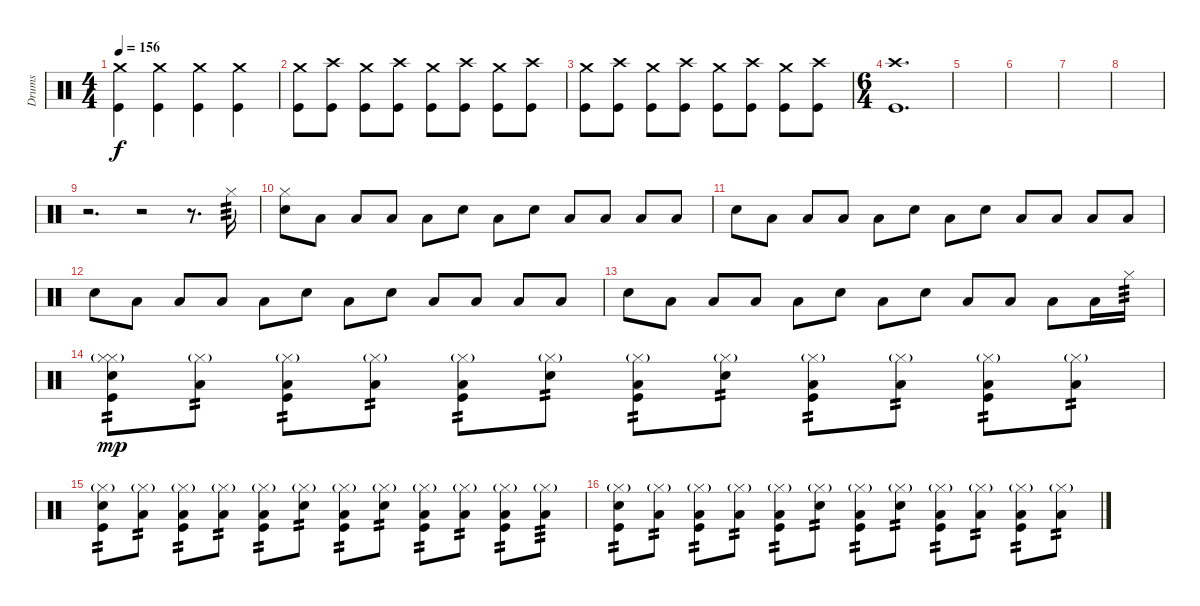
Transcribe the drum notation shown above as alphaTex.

\track ("Drums" "Drums") {instrument percussion}
\staff {score}
\articulation defaults
\ts (4 4)
\tempo 156
\clef neutral
\ks c
("Crash medium (hit)" "Kick (hit)").4{dy f} ("Crash medium (hit)" "Kick (hit)").4 ("Crash medium (hit)" "Kick (hit)").4 ("Crash medium (hit)" "Kick (hit)").4 |
("Crash medium (hit)" "Kick (hit)").8 ("Crash high (hit)" "Kick (hit)").8 ("Crash medium (hit)" "Kick (hit)").8 ("Crash high (hit)" "Kick (hit)").8 ("Crash medium (hit)" "Kick (hit)").8 ("Crash high (hit)" "Kick (hit)").8 ("Crash medium (hit)" "Kick (hit)").8 ("Crash high (hit)" "Kick (hit)").8 |
("Crash medium (hit)" "Kick (hit)").8 ("Crash high (hit)" "Kick (hit)").8 ("Crash medium (hit)" "Kick (hit)").8 ("Crash high (hit)" "Kick (hit)").8 ("Crash medium (hit)" "Kick (hit)").8 ("Crash high (hit)" "Kick (hit)").8 ("Crash medium (hit)" "Kick (hit)").8 ("Crash high (hit)" "Kick (hit)").8 |
\ts (6 4)
("Crash high (hit)" "Kick (hit)").1{d} |
|
|
|
|
r.2{d} r.2 r.8{d} "Hi-Hat (closed)".16{tp 3} |
("Hi-Hat (closed)" "Electric Snare (hit)").8 "Low Tom (hit)".8 "Low Tom (hit)".8 "Low Tom (hit)".8 "Low Tom (hit)".8 "Electric Snare (hit)".8 "Low Tom (hit)".8 "Electric Snare (hit)".8 "Low Tom (hit)".8 "Low Tom (hit)".8 "Low Tom (hit)".8 "Low Tom (hit)".8 |
"Electric Snare (hit)".8 "Low Tom (hit)".8 "Low Tom (hit)".8 "Low Tom (hit)".8 "Low Tom (hit)".8 "Electric Snare (hit)".8 "Low Tom (hit)".8 "Electric Snare (hit)".8 "Low Tom (hit)".8 "Low Tom (hit)".8 "Low Tom (hit)".8 "Low Tom (hit)".8 |
"Electric Snare (hit)".8 "Low Tom (hit)".8 "Low Tom (hit)".8 "Low Tom (hit)".8 "Low Tom (hit)".8 "Electric Snare (hit)".8 "Low Tom (hit)".8 "Electric Snare (hit)".8 "Low Tom (hit)".8 "Low Tom (hit)".8 "Low Tom (hit)".8 "Low Tom (hit)".8 |
"Electric Snare (hit)".8 "Low Tom (hit)".8 "Low Tom (hit)".8 "Low Tom (hit)".8 "Low Tom (hit)".8 "Electric Snare (hit)".8 "Low Tom (hit)".8 "Electric Snare (hit)".8 "Low Tom (hit)".8 "Low Tom (hit)".8 "Low Tom (hit)".8 "Low Tom (hit)".16 "Hi-Hat (closed)".16{tp 3} |
("Hi-Hat (closed)"{g} "Hi-Hat (closed)" "Electric Snare (hit)" "Kick (hit)").8{tp 2 dy mp} ("Hi-Hat (closed)"{g} "Low Tom (hit)").8{tp 2} ("Hi-Hat (closed)"{g} "Low Tom (hit)" "Kick (hit)").8{tp 2} ("Hi-Hat (closed)"{g} "Low Tom (hit)").8{tp 2} ("Hi-Hat (closed)"{g} "Low Tom (hit)" "Kick (hit)").8{tp 2} ("Hi-Hat (closed)"{g} "Electric Snare (hit)").8{tp 2} ("Hi-Hat (closed)"{g} "Low Tom (hit)" "Kick (hit)").8{tp 2} ("Hi-Hat (closed)"{g} "Electric Snare (hit)").8{tp 2} ("Hi-Hat (closed)"{g} "Low Tom (hit)" "Kick (hit)").8{tp 2} ("Hi-Hat (closed)"{g} "Low Tom (hit)").8{tp 2} ("Hi-Hat (closed)"{g} "Low Tom (hit)" "Kick (hit)").8{tp 2} ("Hi-Hat (closed)"{g} "Low Tom (hit)").8{tp 2} |
("Hi-Hat (closed)"{g} "Electric Snare (hit)" "Kick (hit)").8{tp 2} ("Hi-Hat (closed)"{g} "Low Tom (hit)").8{tp 2} ("Hi-Hat (closed)"{g} "Low Tom (hit)" "Kick (hit)").8{tp 2} ("Hi-Hat (closed)"{g} "Low Tom (hit)").8{tp 2} ("Hi-Hat (closed)"{g} "Low Tom (hit)" "Kick (hit)").8{tp 2} ("Hi-Hat (closed)"{g} "Electric Snare (hit)").8{tp 2} ("Hi-Hat (closed)"{g} "Low Tom (hit)" "Kick (hit)").8{tp 2} ("Hi-Hat (closed)"{g} "Electric Snare (hit)").8{tp 2} ("Hi-Hat (closed)"{g} "Low Tom (hit)" "Kick (hit)").8{tp 2} ("Hi-Hat (closed)"{g} "Low Tom (hit)").8{tp 2} ("Hi-Hat (closed)"{g} "Low Tom (hit)" "Kick (hit)").8{tp 2} ("Hi-Hat (closed)"{g} "Low Tom (hit)").8{tp 3} |
("Hi-Hat (closed)"{g} "Electric Snare (hit)" "Kick (hit)").8{tp 2} ("Hi-Hat (closed)"{g} "Low Tom (hit)").8{tp 2} ("Hi-Hat (closed)"{g} "Low Tom (hit)" "Kick (hit)").8{tp 2} ("Hi-Hat (closed)"{g} "Low Tom (hit)").8{tp 2} ("Hi-Hat (closed)"{g} "Low Tom (hit)" "Kick (hit)").8{tp 2} ("Hi-Hat (closed)"{g} "Electric Snare (hit)").8{tp 2} ("Hi-Hat (closed)"{g} "Low Tom (hit)" "Kick (hit)").8{tp 2} ("Hi-Hat (closed)"{g} "Electric Snare (hit)").8{tp 2} ("Hi-Hat (closed)"{g} "Low Tom (hit)" "Kick (hit)").8{tp 2} ("Hi-Hat (closed)"{g} "Low Tom (hit)").8{tp 2} ("Hi-Hat (closed)"{g} "Low Tom (hit)" "Kick (hit)").8{tp 2} ("Hi-Hat (closed)"{g} "Low Tom (hit)").8{tp 2}
